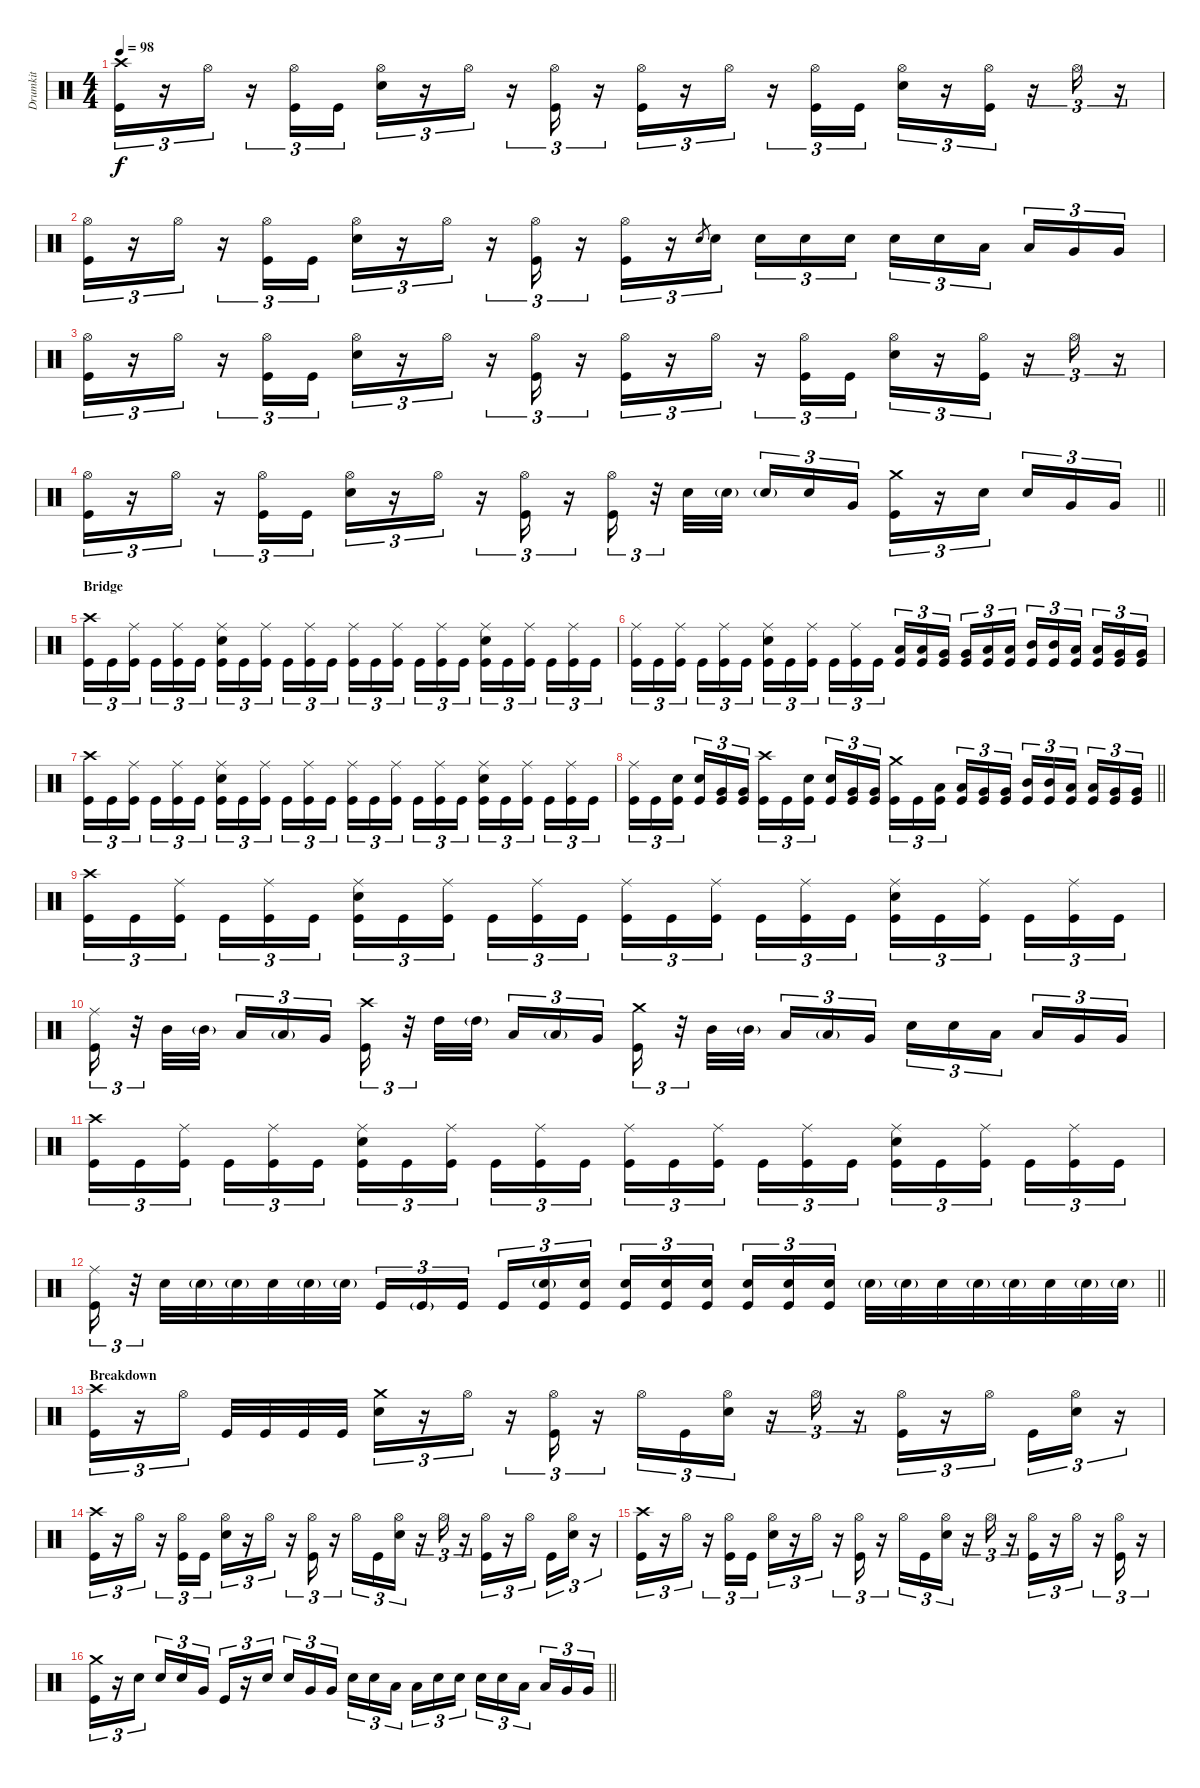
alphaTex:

\track ("Drumkit" "Drumkit") {instrument percussion}
\staff {score}
\articulation defaults
\ts (4 4)
\tempo 98
\clef neutral
\ks c
("Kick (hit)" "Crash high (hit)").16{tu (3 2) dy f} r.16{tu (3 2)} "Hi-Hat (open)".16{tu (3 2)} r.16{tu (3 2)} ("Hi-Hat (open)" "Kick (hit)").16{tu (3 2)} "Kick (hit)".16{tu (3 2)} ("Snare (hit) 2" "Hi-Hat (open)").16{tu (3 2)} r.16{tu (3 2)} "Hi-Hat (open)".16{tu (3 2)} r.16{tu (3 2)} ("Kick (hit)" "Hi-Hat (open)").16{tu (3 2)} r.16{tu (3 2)} ("Kick (hit)" "Hi-Hat (open)").16{tu (3 2)} r.16{tu (3 2)} "Hi-Hat (open)".16{tu (3 2)} r.16{tu (3 2)} ("Kick (hit)" "Hi-Hat (open)").16{tu (3 2)} "Kick (hit)".16{tu (3 2)} ("Hi-Hat (open)" "Snare (hit) 2").16{tu (3 2)} r.16{tu (3 2)} ("Kick (hit)" "Hi-Hat (open)").16{tu (3 2)} r.16{tu (3 2)} "Hi-Hat (open)".16{tu (3 2)} r.16{tu (3 2)} |
("Kick (hit)" "Hi-Hat (open)").16{tu (3 2)} r.16{tu (3 2)} "Hi-Hat (open)".16{tu (3 2)} r.16{tu (3 2)} ("Kick (hit)" "Hi-Hat (open)").16{tu (3 2)} "Kick (hit)".16{tu (3 2)} ("Snare (hit) 2" "Hi-Hat (open)").16{tu (3 2)} r.16{tu (3 2)} "Hi-Hat (open)".16{tu (3 2)} r.16{tu (3 2)} ("Kick (hit)" "Hi-Hat (open)").16{tu (3 2)} r.16{tu (3 2)} ("Kick (hit)" "Hi-Hat (open)").16{tu (3 2)} r.16{tu (3 2)} "Snare (hit)".8{gr} "Snare (hit) 2".16{tu (3 2)} "Snare (hit) 2".16{tu (3 2)} "Snare (hit) 2".16{tu (3 2)} "Snare (hit) 2".16{tu (3 2)} "Snare (hit) 2".16{tu (3 2)} "Snare (hit) 2".16{tu (3 2)} "Low Tom (hit)".16{tu (3 2)} "Low Tom (hit)".16{tu (3 2)} "Very Low Tom (hit)".16{tu (3 2)} "Very Low Tom (hit)".16{tu (3 2)} |
("Kick (hit)" "Hi-Hat (open)").16{tu (3 2)} r.16{tu (3 2)} "Hi-Hat (open)".16{tu (3 2)} r.16{tu (3 2)} ("Kick (hit)" "Hi-Hat (open)").16{tu (3 2)} "Kick (hit)".16{tu (3 2)} ("Snare (hit) 2" "Hi-Hat (open)").16{tu (3 2)} r.16{tu (3 2)} "Hi-Hat (open)".16{tu (3 2)} r.16{tu (3 2)} ("Kick (hit)" "Hi-Hat (open)").16{tu (3 2)} r.16{tu (3 2)} ("Kick (hit)" "Hi-Hat (open)").16{tu (3 2)} r.16{tu (3 2)} "Hi-Hat (open)".16{tu (3 2)} r.16{tu (3 2)} ("Kick (hit)" "Hi-Hat (open)").16{tu (3 2)} "Kick (hit)".16{tu (3 2)} ("Hi-Hat (open)" "Snare (hit) 2").16{tu (3 2)} r.16{tu (3 2)} ("Kick (hit)" "Hi-Hat (open)").16{tu (3 2)} r.16{tu (3 2)} "Hi-Hat (open)".16{tu (3 2)} r.16{tu (3 2)} |
\barLineRight lightlight
("Kick (hit)" "Hi-Hat (open)").16{tu (3 2)} r.16{tu (3 2)} "Hi-Hat (open)".16{tu (3 2)} r.16{tu (3 2)} ("Kick (hit)" "Hi-Hat (open)").16{tu (3 2)} "Kick (hit)".16{tu (3 2)} ("Snare (hit) 2" "Hi-Hat (open)").16{tu (3 2)} r.16{tu (3 2)} "Hi-Hat (open)".16{tu (3 2)} r.16{tu (3 2)} ("Kick (hit)" "Hi-Hat (open)").16{tu (3 2)} r.16{tu (3 2)} ("Kick (hit)" "Hi-Hat (open)").16{tu (3 2)} r.32{tu (3 2)} "Snare (hit) 2".32 "Snare (hit) 2"{g}.32 "Snare (hit) 2"{g}.16{tu (3 2)} "Snare (hit) 2".16{tu (3 2)} "Very Low Tom (hit)".16{tu (3 2)} ("Kick (hit)" "Crash medium (hit)").16{tu (3 2)} r.16{tu (3 2)} "Snare (hit) 2".16{tu (3 2)} "Snare (hit) 2".16{tu (3 2)} "Very Low Tom (hit)".16{tu (3 2)} "Very Low Tom (hit)".16{tu (3 2)} |
\section ("" "Bridge")
("Kick (hit)" "Crash high (hit)").16{tu (3 2)} "Kick (hit)".16{tu (3 2)} ("Kick (hit)" "Ride (middle)").16{tu (3 2)} "Kick (hit)".16{tu (3 2)} ("Kick (hit)" "Ride (middle)").16{tu (3 2)} "Kick (hit)".16{tu (3 2)} ("Kick (hit)" "Snare (hit) 2" "Ride (middle)").16{tu (3 2)} "Kick (hit)".16{tu (3 2)} ("Kick (hit)" "Ride (middle)").16{tu (3 2)} "Kick (hit)".16{tu (3 2)} ("Kick (hit)" "Ride (middle)").16{tu (3 2)} "Kick (hit)".16{tu (3 2)} ("Kick (hit)" "Ride (middle)").16{tu (3 2)} "Kick (hit)".16{tu (3 2)} ("Kick (hit)" "Ride (middle)").16{tu (3 2)} "Kick (hit)".16{tu (3 2)} ("Kick (hit)" "Ride (middle)").16{tu (3 2)} "Kick (hit)".16{tu (3 2)} ("Kick (hit)" "Ride (middle)" "Snare (hit) 2").16{tu (3 2)} "Kick (hit)".16{tu (3 2)} ("Kick (hit)" "Ride (middle)").16{tu (3 2)} "Kick (hit)".16{tu (3 2)} ("Kick (hit)" "Ride (middle)").16{tu (3 2)} "Kick (hit)".16{tu (3 2)} |
("Kick (hit)" "Ride (middle)").16{tu (3 2)} "Kick (hit)".16{tu (3 2)} ("Kick (hit)" "Ride (middle)").16{tu (3 2)} "Kick (hit)".16{tu (3 2)} ("Kick (hit)" "Ride (middle)").16{tu (3 2)} "Kick (hit)".16{tu (3 2)} ("Kick (hit)" "Snare (hit) 2" "Ride (middle)").16{tu (3 2)} "Kick (hit)".16{tu (3 2)} ("Kick (hit)" "Ride (middle)").16{tu (3 2)} "Kick (hit)".16{tu (3 2)} ("Kick (hit)" "Ride (middle)").16{tu (3 2)} "Kick (hit)".16{tu (3 2)} ("Kick (hit)" "Low Tom (hit)").16{tu (3 2)} ("Kick (hit)" "Low Tom (hit)").16{tu (3 2)} ("Kick (hit)" "Very Low Tom (hit)").16{tu (3 2)} ("Kick (hit)" "Very Low Tom (hit)").16{tu (3 2)} ("Kick (hit)" "Low Tom (hit)").16{tu (3 2)} ("Kick (hit)" "Low Tom (hit)").16{tu (3 2)} ("Kick (hit)" "Mid Tom (hit)").16{tu (3 2)} ("Kick (hit)" "Mid Tom (hit)").16{tu (3 2)} ("Kick (hit)" "Low Tom (hit)").16{tu (3 2)} ("Kick (hit)" "Low Tom (hit)").16{tu (3 2)} ("Kick (hit)" "Very Low Tom (hit)").16{tu (3 2)} ("Kick (hit)" "Very Low Tom (hit)").16{tu (3 2)} |
("Kick (hit)" "Crash high (hit)").16{tu (3 2)} "Kick (hit)".16{tu (3 2)} ("Kick (hit)" "Ride (middle)").16{tu (3 2)} "Kick (hit)".16{tu (3 2)} ("Kick (hit)" "Ride (middle)").16{tu (3 2)} "Kick (hit)".16{tu (3 2)} ("Kick (hit)" "Snare (hit) 2" "Ride (middle)").16{tu (3 2)} "Kick (hit)".16{tu (3 2)} ("Kick (hit)" "Ride (middle)").16{tu (3 2)} "Kick (hit)".16{tu (3 2)} ("Kick (hit)" "Ride (middle)").16{tu (3 2)} "Kick (hit)".16{tu (3 2)} ("Kick (hit)" "Ride (middle)").16{tu (3 2)} "Kick (hit)".16{tu (3 2)} ("Kick (hit)" "Ride (middle)").16{tu (3 2)} "Kick (hit)".16{tu (3 2)} ("Kick (hit)" "Ride (middle)").16{tu (3 2)} "Kick (hit)".16{tu (3 2)} ("Kick (hit)" "Ride (middle)" "Snare (hit) 2").16{tu (3 2)} "Kick (hit)".16{tu (3 2)} ("Kick (hit)" "Ride (middle)").16{tu (3 2)} "Kick (hit)".16{tu (3 2)} ("Kick (hit)" "Ride (middle)").16{tu (3 2)} "Kick (hit)".16{tu (3 2)} |
\barLineRight lightlight
("Kick (hit)" "Ride (middle)").16{tu (3 2)} "Kick (hit)".16{tu (3 2)} ("Kick (hit)" "Snare (hit) 2").16{tu (3 2)} ("Kick (hit)" "Snare (hit) 2").16{tu (3 2)} ("Kick (hit)" "Very Low Tom (hit)").16{tu (3 2)} ("Kick (hit)" "Very Low Tom (hit)").16{tu (3 2)} ("Kick (hit)" "Crash high (hit)").16{tu (3 2)} "Kick (hit)".16{tu (3 2)} ("Kick (hit)" "Snare (hit) 2").16{tu (3 2)} ("Kick (hit)" "Snare (hit) 2").16{tu (3 2)} ("Kick (hit)" "Very Low Tom (hit)").16{tu (3 2)} ("Kick (hit)" "Very Low Tom (hit)").16{tu (3 2)} ("Kick (hit)" "Crash medium (hit)").16{tu (3 2)} "Kick (hit)".16{tu (3 2)} ("Kick (hit)" "Low Tom (hit)").16{tu (3 2)} ("Kick (hit)" "Low Tom (hit)").16{tu (3 2)} ("Kick (hit)" "Very Low Tom (hit)").16{tu (3 2)} ("Kick (hit)" "Very Low Tom (hit)").16{tu (3 2)} ("Kick (hit)" "Mid Tom (hit)").16{tu (3 2)} ("Kick (hit)" "Mid Tom (hit)").16{tu (3 2)} ("Kick (hit)" "Low Tom (hit)").16{tu (3 2)} ("Kick (hit)" "Low Tom (hit)").16{tu (3 2)} ("Kick (hit)" "Very Low Tom (hit)").16{tu (3 2)} ("Kick (hit)" "Very Low Tom (hit)").16{tu (3 2)} |
("Kick (hit)" "Crash high (hit)").16{tu (3 2)} "Kick (hit)".16{tu (3 2)} ("Kick (hit)" "Ride (middle)").16{tu (3 2)} "Kick (hit)".16{tu (3 2)} ("Kick (hit)" "Ride (middle)").16{tu (3 2)} "Kick (hit)".16{tu (3 2)} ("Kick (hit)" "Snare (hit) 2" "Ride (middle)").16{tu (3 2)} "Kick (hit)".16{tu (3 2)} ("Kick (hit)" "Ride (middle)").16{tu (3 2)} "Kick (hit)".16{tu (3 2)} ("Kick (hit)" "Ride (middle)").16{tu (3 2)} "Kick (hit)".16{tu (3 2)} ("Kick (hit)" "Ride (middle)").16{tu (3 2)} "Kick (hit)".16{tu (3 2)} ("Kick (hit)" "Ride (middle)").16{tu (3 2)} "Kick (hit)".16{tu (3 2)} ("Kick (hit)" "Ride (middle)").16{tu (3 2)} "Kick (hit)".16{tu (3 2)} ("Kick (hit)" "Ride (middle)" "Snare (hit) 2").16{tu (3 2)} "Kick (hit)".16{tu (3 2)} ("Kick (hit)" "Ride (middle)").16{tu (3 2)} "Kick (hit)".16{tu (3 2)} ("Kick (hit)" "Ride (middle)").16{tu (3 2)} "Kick (hit)".16{tu (3 2)} |
("Kick (hit)" "Ride (middle)").16{tu (3 2)} r.32{tu (3 2)} "Mid Tom (hit)".32 "Mid Tom (hit)"{g}.32 "Low Tom (hit)".16{tu (3 2)} "Low Tom (hit)"{g}.16{tu (3 2)} "Very Low Tom (hit)".16{tu (3 2)} ("Kick (hit)" "Crash high (hit)").16{tu (3 2)} r.32{tu (3 2)} "High Tom (hit)".32 "High Tom (hit)"{g}.32 "Low Tom (hit)".16{tu (3 2)} "Low Tom (hit)"{g}.16{tu (3 2)} "Very Low Tom (hit)".16{tu (3 2)} ("Kick (hit)" "Crash medium (hit)").16{tu (3 2)} r.32{tu (3 2)} "Mid Tom (hit)".32 "Mid Tom (hit)"{g}.32 "Low Tom (hit)".16{tu (3 2)} "Low Tom (hit)"{g}.16{tu (3 2)} "Very Low Tom (hit)".16{tu (3 2)} "Snare (hit) 2".16{tu (3 2)} "Snare (hit) 2".16{tu (3 2)} "Low Tom (hit)".16{tu (3 2)} "Low Tom (hit)".16{tu (3 2)} "Very Low Tom (hit)".16{tu (3 2)} "Very Low Tom (hit)".16{tu (3 2)} |
("Kick (hit)" "Crash high (hit)").16{tu (3 2)} "Kick (hit)".16{tu (3 2)} ("Kick (hit)" "Ride (middle)").16{tu (3 2)} "Kick (hit)".16{tu (3 2)} ("Kick (hit)" "Ride (middle)").16{tu (3 2)} "Kick (hit)".16{tu (3 2)} ("Kick (hit)" "Snare (hit) 2" "Ride (middle)").16{tu (3 2)} "Kick (hit)".16{tu (3 2)} ("Kick (hit)" "Ride (middle)").16{tu (3 2)} "Kick (hit)".16{tu (3 2)} ("Kick (hit)" "Ride (middle)").16{tu (3 2)} "Kick (hit)".16{tu (3 2)} ("Kick (hit)" "Ride (middle)").16{tu (3 2)} "Kick (hit)".16{tu (3 2)} ("Kick (hit)" "Ride (middle)").16{tu (3 2)} "Kick (hit)".16{tu (3 2)} ("Kick (hit)" "Ride (middle)").16{tu (3 2)} "Kick (hit)".16{tu (3 2)} ("Kick (hit)" "Ride (middle)" "Snare (hit) 2").16{tu (3 2)} "Kick (hit)".16{tu (3 2)} ("Kick (hit)" "Ride (middle)").16{tu (3 2)} "Kick (hit)".16{tu (3 2)} ("Kick (hit)" "Ride (middle)").16{tu (3 2)} "Kick (hit)".16{tu (3 2)} |
\barLineRight lightlight
("Kick (hit)" "Ride (middle)").16{tu (3 2)} r.32{tu (3 2)} "Snare (hit) 2".32 "Snare (hit) 2"{g}.32 "Snare (hit) 2"{g}.32 "Snare (hit) 2".32 "Snare (hit) 2"{g}.32 "Snare (hit) 2"{g}.32 "Kick (hit)".16{tu (3 2)} "Kick (hit)"{g}.16{tu (3 2)} "Kick (hit)".16{tu (3 2)} "Kick (hit)".16{tu (3 2)} ("Kick (hit)" "Snare (hit) 2"{g}).16{tu (3 2)} ("Kick (hit)" "Snare (hit) 2").16{tu (3 2)} ("Kick (hit)" "Snare (hit) 2").16{tu (3 2)} ("Kick (hit)" "Snare (hit) 2").16{tu (3 2)} ("Kick (hit)" "Snare (hit) 2").16{tu (3 2)} ("Kick (hit)" "Snare (hit) 2").16{tu (3 2)} ("Kick (hit)" "Snare (hit) 2").16{tu (3 2)} ("Kick (hit)" "Snare (hit) 2").16{tu (3 2)} "Snare (hit) 2"{g}.32 "Snare (hit) 2"{g}.32 "Snare (hit) 2".32 "Snare (hit) 2"{g}.32 "Snare (hit) 2"{g}.32 "Snare (hit) 2".32 "Snare (hit) 2"{g}.32 "Snare (hit) 2"{g}.32 |
\section ("" "Breakdown")
("Kick (hit)" "Crash high (hit)").16{tu (3 2)} r.16{tu (3 2)} "Hi-Hat (open)".16{tu (3 2)} "Kick (hit)".32 "Kick (hit)".32 "Kick (hit)".32 "Kick (hit)".32 ("Snare (hit) 2" "Crash medium (hit)").16{tu (3 2)} r.16{tu (3 2)} "Hi-Hat (open)".16{tu (3 2)} r.16{tu (3 2)} ("Hi-Hat (open)" "Kick (hit)").16{tu (3 2)} r.16{tu (3 2)} "Hi-Hat (open)".16{tu (3 2)} "Kick (hit)".16{tu (3 2)} ("Hi-Hat (open)" "Snare (hit) 2").16{tu (3 2)} r.16{tu (3 2)} "Hi-Hat (open)".16{tu (3 2)} r.16{tu (3 2)} ("Hi-Hat (open)" "Kick (hit)").16{tu (3 2)} r.16{tu (3 2)} "Hi-Hat (open)".16{tu (3 2)} "Kick (hit)".16{tu (3 2)} ("Hi-Hat (open)" "Snare (hit) 2").16{tu (3 2)} r.16{tu (3 2)} |
("Kick (hit)" "Crash high (hit)").16{tu (3 2)} r.16{tu (3 2)} "Hi-Hat (open)".16{tu (3 2)} r.16{tu (3 2)} ("Hi-Hat (open)" "Kick (hit)").16{tu (3 2)} "Kick (hit)".16{tu (3 2)} ("Snare (hit) 2" "Hi-Hat (open)").16{tu (3 2)} r.16{tu (3 2)} "Hi-Hat (open)".16{tu (3 2)} r.16{tu (3 2)} ("Hi-Hat (open)" "Kick (hit)").16{tu (3 2)} r.16{tu (3 2)} "Hi-Hat (open)".16{tu (3 2)} "Kick (hit)".16{tu (3 2)} ("Hi-Hat (open)" "Snare (hit) 2").16{tu (3 2)} r.16{tu (3 2)} "Hi-Hat (open)".16{tu (3 2)} r.16{tu (3 2)} ("Hi-Hat (open)" "Kick (hit)").16{tu (3 2)} r.16{tu (3 2)} "Hi-Hat (open)".16{tu (3 2)} "Kick (hit)".16{tu (3 2)} ("Hi-Hat (open)" "Snare (hit) 2").16{tu (3 2)} r.16{tu (3 2)} |
("Kick (hit)" "Crash high (hit)").16{tu (3 2)} r.16{tu (3 2)} "Hi-Hat (open)".16{tu (3 2)} r.16{tu (3 2)} ("Hi-Hat (open)" "Kick (hit)").16{tu (3 2)} "Kick (hit)".16{tu (3 2)} ("Snare (hit) 2" "Hi-Hat (open)").16{tu (3 2)} r.16{tu (3 2)} "Hi-Hat (open)".16{tu (3 2)} r.16{tu (3 2)} ("Hi-Hat (open)" "Kick (hit)").16{tu (3 2)} r.16{tu (3 2)} "Hi-Hat (open)".16{tu (3 2)} "Kick (hit)".16{tu (3 2)} ("Hi-Hat (open)" "Snare (hit) 2").16{tu (3 2)} r.16{tu (3 2)} "Hi-Hat (open)".16{tu (3 2)} r.16{tu (3 2)} ("Hi-Hat (open)" "Kick (hit)").16{tu (3 2)} r.16{tu (3 2)} "Hi-Hat (open)".16{tu (3 2)} r.16{tu (3 2)} ("Hi-Hat (open)" "Kick (hit)").16{tu (3 2)} r.16{tu (3 2)} |
\barLineRight lightlight
("Kick (hit)" "Crash medium (hit)").16{tu (3 2)} r.16{tu (3 2)} "Snare (hit) 2".16{tu (3 2)} "Snare (hit) 2".16{tu (3 2)} "Snare (hit) 2".16{tu (3 2)} "Very Low Tom (hit)".16{tu (3 2)} "Kick (hit)".16{tu (3 2)} r.16{tu (3 2)} "Snare (hit) 2".16{tu (3 2)} "Snare (hit) 2".16{tu (3 2)} "Very Low Tom (hit)".16{tu (3 2)} "Very Low Tom (hit)".16{tu (3 2)} "Snare (hit) 2".16{tu (3 2)} "Snare (hit) 2".16{tu (3 2)} "Low Tom (hit)".16{tu (3 2)} "Low Tom (hit)".16{tu (3 2)} "Snare (hit) 2".16{tu (3 2)} "Snare (hit) 2".16{tu (3 2)} "Snare (hit) 2".16{tu (3 2)} "Snare (hit) 2".16{tu (3 2)} "Low Tom (hit)".16{tu (3 2)} "Low Tom (hit)".16{tu (3 2)} "Very Low Tom (hit)".16{tu (3 2)} "Very Low Tom (hit)".16{tu (3 2)}
